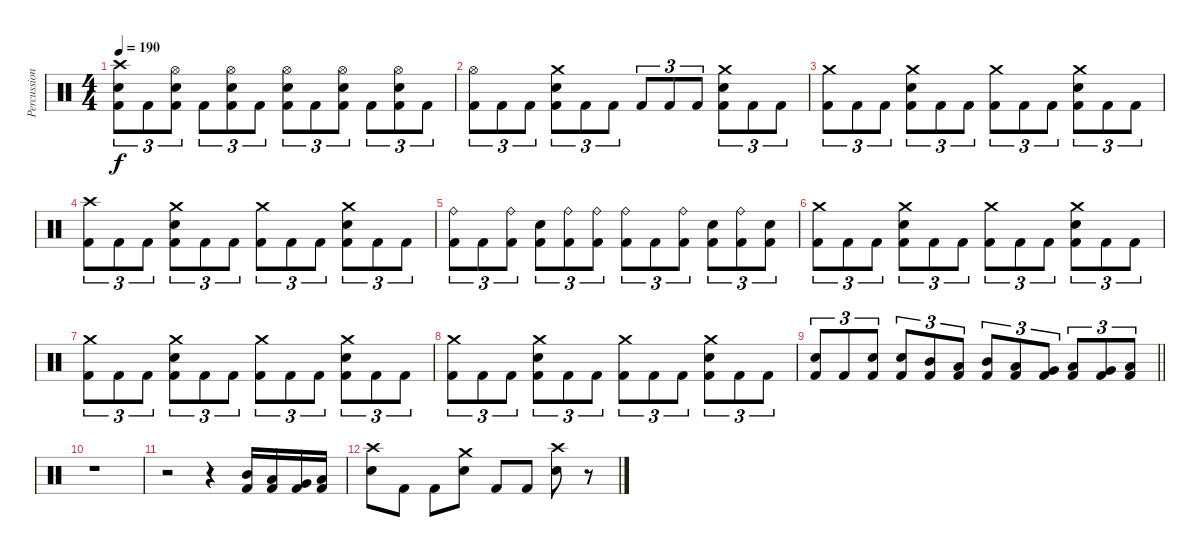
\track ("Percussion" "Percussion") {instrument percussion}
\staff {score}
\articulation defaults
\ts (4 4)
\tempo 190
\clef neutral
\ks c
("Crash high (hit)" "Snare (hit) 2" "Kick (hit) 2").8{tu (3 2) dy f} "Kick (hit) 2".8{tu (3 2)} ("Hi-Hat (open)" "Snare (hit) 2" "Kick (hit) 2").8{tu (3 2)} "Kick (hit) 2".8{tu (3 2)} ("Hi-Hat (open)" "Snare (hit) 2" "Kick (hit) 2").8{tu (3 2)} "Kick (hit) 2".8{tu (3 2)} ("Hi-Hat (open)" "Snare (hit) 2" "Kick (hit) 2").8{tu (3 2)} "Kick (hit) 2".8{tu (3 2)} ("Hi-Hat (open)" "Snare (hit) 2" "Kick (hit) 2").8{tu (3 2)} "Kick (hit) 2".8{tu (3 2)} ("Hi-Hat (open)" "Snare (hit) 2" "Kick (hit) 2").8{tu (3 2)} "Kick (hit) 2".8{tu (3 2)} |
("Hi-Hat (open)" "Kick (hit) 2").8{tu (3 2)} "Kick (hit) 2".8{tu (3 2)} "Kick (hit) 2".8{tu (3 2)} ("Crash medium (hit)" "Snare (hit) 2" "Kick (hit) 2").8{tu (3 2)} "Kick (hit) 2".8{tu (3 2)} "Kick (hit) 2".8{tu (3 2)} "Kick (hit) 2".8{tu (3 2)} "Kick (hit) 2".8{tu (3 2)} "Kick (hit) 2".8{tu (3 2)} ("Crash medium (hit)" "Snare (hit) 2" "Kick (hit) 2").8{tu (3 2)} "Kick (hit) 2".8{tu (3 2)} "Kick (hit) 2".8{tu (3 2)} |
("Crash medium (hit)" "Kick (hit) 2").8{tu (3 2)} "Kick (hit) 2".8{tu (3 2)} "Kick (hit) 2".8{tu (3 2)} ("Crash medium (hit)" "Snare (hit) 2" "Kick (hit) 2").8{tu (3 2)} "Kick (hit) 2".8{tu (3 2)} "Kick (hit) 2".8{tu (3 2)} ("Crash medium (hit)" "Kick (hit) 2").8{tu (3 2)} "Kick (hit) 2".8{tu (3 2)} "Kick (hit) 2".8{tu (3 2)} ("Crash medium (hit)" "Snare (hit) 2" "Kick (hit) 2").8{tu (3 2)} "Kick (hit) 2".8{tu (3 2)} "Kick (hit) 2".8{tu (3 2)} |
("Crash high (hit)" "Kick (hit) 2").8{tu (3 2)} "Kick (hit) 2".8{tu (3 2)} "Kick (hit) 2".8{tu (3 2)} ("Crash medium (hit)" "Snare (hit) 2" "Kick (hit) 2").8{tu (3 2)} "Kick (hit) 2".8{tu (3 2)} "Kick (hit) 2".8{tu (3 2)} ("Crash medium (hit)" "Kick (hit) 2").8{tu (3 2)} "Kick (hit) 2".8{tu (3 2)} "Kick (hit) 2".8{tu (3 2)} ("Crash medium (hit)" "Snare (hit) 2" "Kick (hit) 2").8{tu (3 2)} "Kick (hit) 2".8{tu (3 2)} "Kick (hit) 2".8{tu (3 2)} |
("Ride (bell)" "Kick (hit) 2").8{tu (3 2)} "Kick (hit) 2".8{tu (3 2)} ("Ride (bell)" "Kick (hit) 2").8{tu (3 2)} ("Snare (hit) 2" "Kick (hit) 2").8{tu (3 2)} ("Ride (bell)" "Kick (hit) 2").8{tu (3 2)} ("Ride (bell)" "Kick (hit) 2").8{tu (3 2)} ("Ride (bell)" "Kick (hit) 2").8{tu (3 2)} "Kick (hit) 2".8{tu (3 2)} ("Ride (bell)" "Kick (hit) 2").8{tu (3 2)} ("Snare (hit) 2" "Kick (hit) 2").8{tu (3 2)} ("Ride (bell)" "Kick (hit) 2").8{tu (3 2)} ("Snare (hit) 2" "Kick (hit) 2").8{tu (3 2)} |
("Crash medium (hit)" "Kick (hit) 2").8{tu (3 2)} "Kick (hit) 2".8{tu (3 2)} "Kick (hit) 2".8{tu (3 2)} ("Crash medium (hit)" "Snare (hit) 2" "Kick (hit) 2").8{tu (3 2)} "Kick (hit) 2".8{tu (3 2)} "Kick (hit) 2".8{tu (3 2)} ("Crash medium (hit)" "Kick (hit) 2").8{tu (3 2)} "Kick (hit) 2".8{tu (3 2)} "Kick (hit) 2".8{tu (3 2)} ("Crash medium (hit)" "Snare (hit) 2" "Kick (hit) 2").8{tu (3 2)} "Kick (hit) 2".8{tu (3 2)} "Kick (hit) 2".8{tu (3 2)} |
("Crash medium (hit)" "Kick (hit) 2").8{tu (3 2)} "Kick (hit) 2".8{tu (3 2)} "Kick (hit) 2".8{tu (3 2)} ("Crash medium (hit)" "Snare (hit) 2" "Kick (hit) 2").8{tu (3 2)} "Kick (hit) 2".8{tu (3 2)} "Kick (hit) 2".8{tu (3 2)} ("Crash medium (hit)" "Kick (hit) 2").8{tu (3 2)} "Kick (hit) 2".8{tu (3 2)} "Kick (hit) 2".8{tu (3 2)} ("Crash medium (hit)" "Snare (hit) 2" "Kick (hit) 2").8{tu (3 2)} "Kick (hit) 2".8{tu (3 2)} "Kick (hit) 2".8{tu (3 2)} |
("Crash medium (hit)" "Kick (hit) 2").8{tu (3 2)} "Kick (hit) 2".8{tu (3 2)} "Kick (hit) 2".8{tu (3 2)} ("Crash medium (hit)" "Snare (hit) 2" "Kick (hit) 2").8{tu (3 2)} "Kick (hit) 2".8{tu (3 2)} "Kick (hit) 2".8{tu (3 2)} ("Crash medium (hit)" "Kick (hit) 2").8{tu (3 2)} "Kick (hit) 2".8{tu (3 2)} "Kick (hit) 2".8{tu (3 2)} ("Crash medium (hit)" "Snare (hit) 2" "Kick (hit) 2").8{tu (3 2)} "Kick (hit) 2".8{tu (3 2)} "Kick (hit) 2".8{tu (3 2)} |
\barLineRight lightlight
("Snare (hit) 2" "Kick (hit) 2").8{tu (3 2)} "Kick (hit) 2".8{tu (3 2)} ("Snare (hit) 2" "Kick (hit) 2").8{tu (3 2)} ("Snare (hit) 2" "Kick (hit) 2").8{tu (3 2)} ("Mid Tom (hit)" "Kick (hit) 2").8{tu (3 2)} ("Low Tom (hit)" "Kick (hit) 2").8{tu (3 2)} ("Mid Tom (hit)" "Kick (hit) 2").8{tu (3 2)} ("Low Tom (hit)" "Kick (hit) 2").8{tu (3 2)} ("Very Low Tom (hit)" "Kick (hit) 2").8{tu (3 2)} ("Low Floor Tom (hit)" "Kick (hit) 2").8{tu (3 2)} ("Very Low Tom (hit)" "Kick (hit) 2").8{tu (3 2)} ("Low Floor Tom (hit)" "Kick (hit) 2").8{tu (3 2)} |
r.1 |
r.2 r.4 ("Mid Tom (hit)" "Kick (hit) 2").16 ("Low Tom (hit)" "Kick (hit) 2").16 ("Very Low Tom (hit)" "Kick (hit) 2").16 ("Low Floor Tom (hit)" "Kick (hit) 2").16 |
("Crash high (hit)" "Snare (hit) 2").8 "Kick (hit) 2".8 "Kick (hit) 2".8 ("Crash medium (hit)" "Snare (hit) 2").8 "Kick (hit) 2".8 "Kick (hit) 2".8 ("Crash high (hit)" "Snare (hit) 2").8 r.8
